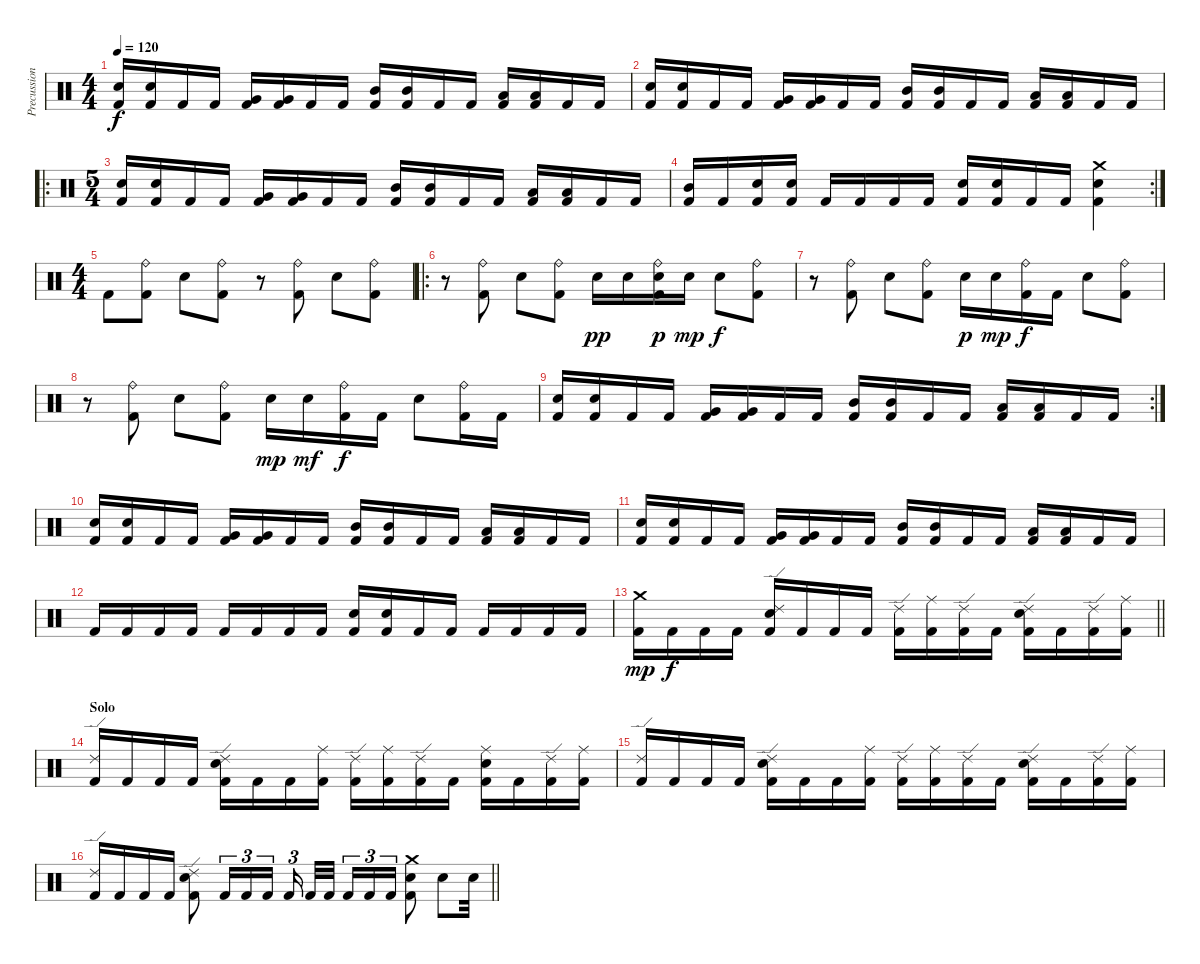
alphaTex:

\track ("Precussion" "Precussion") {instrument percussion}
\staff {score}
\articulation defaults
\ts (4 4)
\tempo 120
\clef neutral
\ks c
("Electric Snare (hit)" "Kick (hit) 2").16{dy f} ("Electric Snare (hit)" "Kick (hit) 2").16 "Kick (hit) 2".16 "Kick (hit) 2".16 ("Very Low Tom (hit)" "Kick (hit) 2").16 ("Very Low Tom (hit)" "Kick (hit) 2").16 "Kick (hit) 2".16 "Kick (hit) 2".16 ("Mid Tom (hit)" "Kick (hit) 2").16 ("Mid Tom (hit)" "Kick (hit) 2").16 "Kick (hit) 2".16 "Kick (hit) 2".16 ("Low Tom (hit)" "Kick (hit) 2").16 ("Low Tom (hit)" "Kick (hit) 2").16 "Kick (hit) 2".16 "Kick (hit) 2".16 |
("Electric Snare (hit)" "Kick (hit) 2").16 ("Electric Snare (hit)" "Kick (hit) 2").16 "Kick (hit) 2".16 "Kick (hit) 2".16 ("Very Low Tom (hit)" "Kick (hit) 2").16 ("Very Low Tom (hit)" "Kick (hit) 2").16 "Kick (hit) 2".16 "Kick (hit) 2".16 ("Mid Tom (hit)" "Kick (hit) 2").16 ("Mid Tom (hit)" "Kick (hit) 2").16 "Kick (hit) 2".16 "Kick (hit) 2".16 ("Low Tom (hit)" "Kick (hit) 2").16 ("Low Tom (hit)" "Kick (hit) 2").16 "Kick (hit) 2".16 "Kick (hit) 2".16 |
\ro
\ts (5 4)
("Electric Snare (hit)" "Kick (hit) 2").16 ("Electric Snare (hit)" "Kick (hit) 2").16 "Kick (hit) 2".16 "Kick (hit) 2".16 ("Very Low Tom (hit)" "Kick (hit) 2").16 ("Very Low Tom (hit)" "Kick (hit) 2").16 "Kick (hit) 2".16 "Kick (hit) 2".16 ("Mid Tom (hit)" "Kick (hit) 2").16 ("Mid Tom (hit)" "Kick (hit) 2").16 "Kick (hit) 2".16 "Kick (hit) 2".16 ("Low Tom (hit)" "Kick (hit) 2").16 ("Low Tom (hit)" "Kick (hit) 2").16 "Kick (hit) 2".16 "Kick (hit) 2".16 |
\rc 2
("Mid Tom (hit)" "Kick (hit) 2").16 "Kick (hit) 2".16 ("Electric Snare (hit)" "Kick (hit) 2").16 ("Electric Snare (hit)" "Kick (hit) 2").16 "Kick (hit) 2".16 "Kick (hit) 2".16 "Kick (hit) 2".16 "Kick (hit) 2".16 ("Electric Snare (hit)" "Kick (hit) 2").16 ("Electric Snare (hit)" "Kick (hit) 2").16 "Kick (hit) 2".16 "Kick (hit) 2".16 ("Crash medium (hit)" "Electric Snare (hit)" "Kick (hit) 2").4 |
\ts (4 4)
"Kick (hit) 2".8 ("Ride (bell)" "Kick (hit) 2").8 "Electric Snare (hit)".8 ("Ride (bell)" "Kick (hit) 2").8 r.8 ("Ride (bell)" "Kick (hit) 2").8 "Electric Snare (hit)".8 ("Ride (bell)" "Kick (hit) 2").8 |
\ro
r.8 ("Ride (bell)" "Kick (hit) 2").8 "Electric Snare (hit)".8 ("Ride (bell)" "Kick (hit) 2").8 "Electric Snare (hit)".16{dy pp} "Electric Snare (hit)".16 ("Ride (bell)" "Electric Snare (hit)" "Kick (hit) 2").16{dy p} "Electric Snare (hit)".16{dy mp} "Electric Snare (hit)".8{dy f} ("Ride (bell)" "Kick (hit) 2").8 |
r.8 ("Ride (bell)" "Kick (hit) 2").8 "Electric Snare (hit)".8 ("Ride (bell)" "Kick (hit) 2").8 "Electric Snare (hit)".16{dy p} "Electric Snare (hit)".16{dy mp} ("Ride (bell)" "Kick (hit) 2").16{dy f} "Kick (hit) 2".16 "Electric Snare (hit)".8 ("Ride (bell)" "Kick (hit) 2").8 |
r.8 ("Ride (bell)" "Kick (hit) 2").8 "Electric Snare (hit)".8 ("Ride (bell)" "Kick (hit) 2").8 "Electric Snare (hit)".16{dy mp} "Electric Snare (hit)".16{dy mf} ("Ride (bell)" "Kick (hit) 2").16{dy f} "Kick (hit) 2".16 "Electric Snare (hit)".8 ("Ride (bell)" "Kick (hit) 2").16 "Kick (hit) 2".16 |
\rc 2
("Electric Snare (hit)" "Kick (hit) 2").16 ("Electric Snare (hit)" "Kick (hit) 2").16 "Kick (hit) 2".16 "Kick (hit) 2".16 ("Very Low Tom (hit)" "Kick (hit) 2").16 ("Very Low Tom (hit)" "Kick (hit) 2").16 "Kick (hit) 2".16 "Kick (hit) 2".16 ("Mid Tom (hit)" "Kick (hit) 2").16 ("Mid Tom (hit)" "Kick (hit) 2").16 "Kick (hit) 2".16 "Kick (hit) 2".16 ("Low Tom (hit)" "Kick (hit) 2").16 ("Low Tom (hit)" "Kick (hit) 2").16 "Kick (hit) 2".16 "Kick (hit) 2".16 |
("Electric Snare (hit)" "Kick (hit) 2").16 ("Electric Snare (hit)" "Kick (hit) 2").16 "Kick (hit) 2".16 "Kick (hit) 2".16 ("Very Low Tom (hit)" "Kick (hit) 2").16 ("Very Low Tom (hit)" "Kick (hit) 2").16 "Kick (hit) 2".16 "Kick (hit) 2".16 ("Mid Tom (hit)" "Kick (hit) 2").16 ("Mid Tom (hit)" "Kick (hit) 2").16 "Kick (hit) 2".16 "Kick (hit) 2".16 ("Low Tom (hit)" "Kick (hit) 2").16 ("Low Tom (hit)" "Kick (hit) 2").16 "Kick (hit) 2".16 "Kick (hit) 2".16 |
("Electric Snare (hit)" "Kick (hit) 2").16 ("Electric Snare (hit)" "Kick (hit) 2").16 "Kick (hit) 2".16 "Kick (hit) 2".16 ("Very Low Tom (hit)" "Kick (hit) 2").16 ("Very Low Tom (hit)" "Kick (hit) 2").16 "Kick (hit) 2".16 "Kick (hit) 2".16 ("Mid Tom (hit)" "Kick (hit) 2").16 ("Mid Tom (hit)" "Kick (hit) 2").16 "Kick (hit) 2".16 "Kick (hit) 2".16 ("Low Tom (hit)" "Kick (hit) 2").16 ("Low Tom (hit)" "Kick (hit) 2").16 "Kick (hit) 2".16 "Kick (hit) 2".16 |
"Kick (hit) 2".16 "Kick (hit) 2".16 "Kick (hit) 2".16 "Kick (hit) 2".16 "Kick (hit) 2".16 "Kick (hit) 2".16 "Kick (hit) 2".16 "Kick (hit) 2".16 ("Electric Snare (hit)" "Kick (hit) 2").16 ("Electric Snare (hit)" "Kick (hit) 2").16 "Kick (hit) 2".16 "Kick (hit) 2".16 "Kick (hit) 2".16 "Kick (hit) 2".16 "Kick (hit) 2".16 "Kick (hit) 2".16 |
\barLineRight lightlight
("Crash medium (hit)" "Kick (hit) 2").16{dy mp} "Kick (hit) 2".16{dy f} "Kick (hit) 2".16 "Kick (hit) 2".16 ("Ride (edge) 2" "Electric Snare (hit)" "Kick (hit) 2").16 "Kick (hit) 2".16 "Kick (hit) 2".16 "Kick (hit) 2".16 ("Ride (edge) 2" "Kick (hit) 2").16 ("Ride (middle)" "Kick (hit) 2").16 ("Ride (edge) 2" "Kick (hit) 2").16 "Kick (hit) 2".16 ("Ride (edge) 2" "Electric Snare (hit)" "Kick (hit) 2").16 "Kick (hit) 2".16 ("Ride (edge) 2" "Kick (hit) 2").16 ("Ride (middle)" "Kick (hit) 2").16 |
\section ("" "Solo")
("Ride (edge) 2" "Kick (hit) 2").16 "Kick (hit) 2".16 "Kick (hit) 2".16 "Kick (hit) 2".16 ("Ride (edge) 2" "Electric Snare (hit)" "Kick (hit) 2").16 "Kick (hit) 2".16 "Kick (hit) 2".16 ("Ride (middle)" "Kick (hit) 2").16 ("Ride (edge) 2" "Kick (hit) 2").16 ("Ride (middle)" "Kick (hit) 2").16 ("Ride (edge) 2" "Kick (hit) 2").16 "Kick (hit) 2".16 ("Ride (middle)" "Electric Snare (hit)" "Kick (hit) 2").16 "Kick (hit) 2".16 ("Ride (edge) 2" "Kick (hit) 2").16 ("Ride (middle)" "Kick (hit) 2").16 |
("Ride (edge) 2" "Kick (hit) 2").16 "Kick (hit) 2".16 "Kick (hit) 2".16 "Kick (hit) 2".16 ("Ride (edge) 2" "Electric Snare (hit)" "Kick (hit) 2").16 "Kick (hit) 2".16 "Kick (hit) 2".16 ("Ride (middle)" "Kick (hit) 2").16 ("Ride (edge) 2" "Kick (hit) 2").16 ("Ride (middle)" "Kick (hit) 2").16 ("Ride (edge) 2" "Kick (hit) 2").16 "Kick (hit) 2".16 ("Ride (edge) 2" "Electric Snare (hit)" "Kick (hit) 2").16 "Kick (hit) 2".16 ("Ride (edge) 2" "Kick (hit) 2").16 ("Ride (middle)" "Kick (hit) 2").16 |
\barLineRight lightlight
("Ride (edge) 2" "Kick (hit) 2").16 "Kick (hit) 2".16 "Kick (hit) 2".16 "Kick (hit) 2".16 ("Ride (edge) 2" "Electric Snare (hit)" "Kick (hit) 2").8 "Kick (hit) 2".16{tu (3 2)} "Kick (hit) 2".16{tu (3 2)} "Kick (hit) 2".16{tu (3 2)} "Kick (hit) 2".16{tu (3 2) beam splitsecondary} "Kick (hit) 2".32 "Kick (hit) 2".32{beam splitsecondary} "Kick (hit) 2".16{tu (3 2)} "Kick (hit) 2".16{tu (3 2)} "Kick (hit) 2".16{tu (3 2)} ("Crash medium (hit)" "Electric Snare (hit)" "Kick (hit) 2").8 "Snare (hit)".8 "Snare (hit)".32
